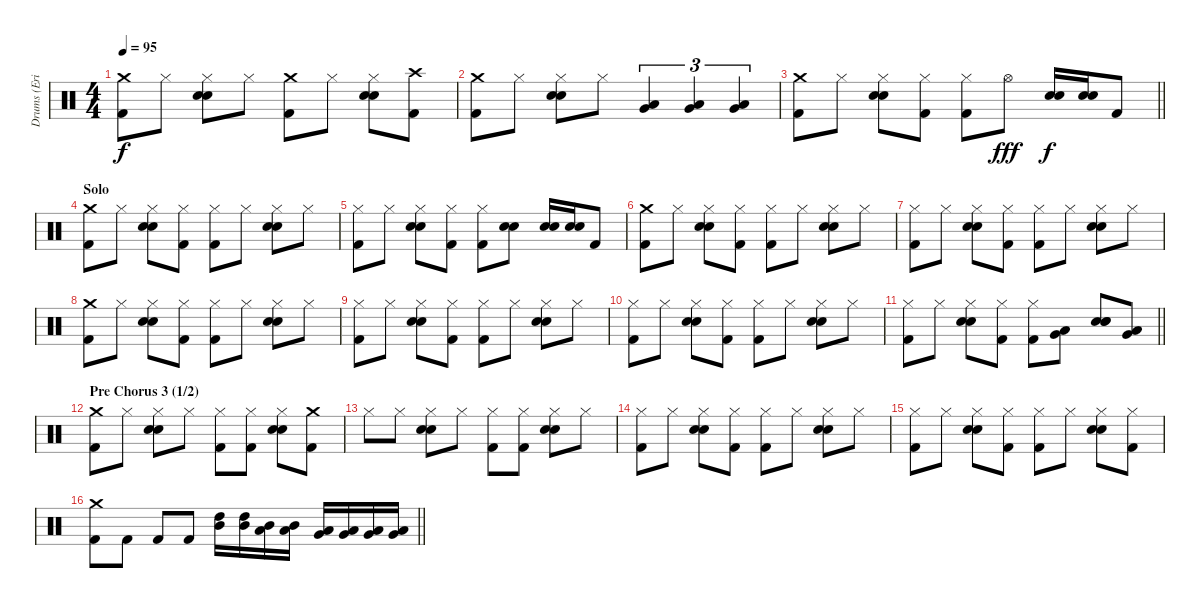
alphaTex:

\track ("Drums (Eric Carr)" "Drums (Eri") {instrument percussion}
\staff {score}
\articulation defaults
\ts (4 4)
\tempo 95
\clef neutral
\ks c
("Crash medium (hit)" "Kick (hit) 2").8{dy f} "Hi-Hat (closed)".8 ("Hi-Hat (closed)" "Electric Snare (hit)" "Snare (hit) 2").8 "Hi-Hat (closed)".8 ("Crash medium (hit)" "Kick (hit) 2").8 "Hi-Hat (closed)".8 ("Hi-Hat (closed)" "Electric Snare (hit)" "Snare (hit) 2").8 ("Kick (hit) 2" "Crash high (hit)").8 |
("Crash medium (hit)" "Kick (hit) 2").8 "Hi-Hat (closed)".8 ("Hi-Hat (closed)" "Electric Snare (hit)" "Snare (hit) 2").8 "Hi-Hat (closed)".8 ("Very Low Tom (hit)" "Low Floor Tom (hit)").4{tu (3 2)} ("Very Low Tom (hit)" "Low Floor Tom (hit)").4{tu (3 2)} ("Very Low Tom (hit)" "Low Floor Tom (hit)").4{tu (3 2)} |
\barLineRight lightlight
("Crash medium (hit)" "Kick (hit) 2").8 "Hi-Hat (closed)".8 ("Hi-Hat (closed)" "Electric Snare (hit)" "Snare (hit) 2").8 ("Hi-Hat (closed)" "Kick (hit) 2").8 ("Hi-Hat (closed)" "Kick (hit) 2").8 "Hi-Hat (open)".8{dy fff} ("Electric Snare (hit)" "Snare (hit) 2").16{dy f} ("Electric Snare (hit)" "Snare (hit) 2").16 "Kick (hit) 2".8 |
\section ("" "Solo")
("Crash medium (hit)" "Kick (hit) 2").8 "Hi-Hat (closed)".8 ("Hi-Hat (closed)" "Electric Snare (hit)" "Snare (hit) 2").8 ("Hi-Hat (closed)" "Kick (hit) 2").8 ("Hi-Hat (closed)" "Kick (hit) 2").8 "Hi-Hat (closed)".8 ("Hi-Hat (closed)" "Electric Snare (hit)" "Snare (hit) 2").8 "Hi-Hat (closed)".8 |
("Hi-Hat (closed)" "Kick (hit) 2").8 "Hi-Hat (closed)".8 ("Hi-Hat (closed)" "Electric Snare (hit)" "Snare (hit) 2").8 ("Hi-Hat (closed)" "Kick (hit) 2").8 ("Hi-Hat (closed)" "Kick (hit) 2").8 ("Snare (hit) 2" "Electric Snare (hit)").8 ("Electric Snare (hit)" "Snare (hit) 2").16 ("Electric Snare (hit)" "Snare (hit) 2").16 "Kick (hit) 2".8 |
("Crash medium (hit)" "Kick (hit) 2").8 "Hi-Hat (closed)".8 ("Hi-Hat (closed)" "Electric Snare (hit)" "Snare (hit) 2").8 ("Hi-Hat (closed)" "Kick (hit) 2").8 ("Hi-Hat (closed)" "Kick (hit) 2").8 "Hi-Hat (closed)".8 ("Hi-Hat (closed)" "Electric Snare (hit)" "Snare (hit) 2").8 "Hi-Hat (closed)".8 |
("Hi-Hat (closed)" "Kick (hit) 2").8 "Hi-Hat (closed)".8 ("Hi-Hat (closed)" "Electric Snare (hit)" "Snare (hit) 2").8 ("Hi-Hat (closed)" "Kick (hit) 2").8 ("Hi-Hat (closed)" "Kick (hit) 2").8 "Hi-Hat (closed)".8 ("Hi-Hat (closed)" "Electric Snare (hit)" "Snare (hit) 2").8 "Hi-Hat (closed)".8 |
("Crash medium (hit)" "Kick (hit) 2").8 "Hi-Hat (closed)".8 ("Hi-Hat (closed)" "Electric Snare (hit)" "Snare (hit) 2").8 ("Hi-Hat (closed)" "Kick (hit) 2").8 ("Hi-Hat (closed)" "Kick (hit) 2").8 "Hi-Hat (closed)".8 ("Hi-Hat (closed)" "Electric Snare (hit)" "Snare (hit) 2").8 "Hi-Hat (closed)".8 |
("Hi-Hat (closed)" "Kick (hit) 2").8 "Hi-Hat (closed)".8 ("Hi-Hat (closed)" "Electric Snare (hit)" "Snare (hit) 2").8 ("Hi-Hat (closed)" "Kick (hit) 2").8 ("Hi-Hat (closed)" "Kick (hit) 2").8 "Hi-Hat (closed)".8 ("Hi-Hat (closed)" "Electric Snare (hit)" "Snare (hit) 2").8 "Hi-Hat (closed)".8 |
("Hi-Hat (closed)" "Kick (hit) 2").8 "Hi-Hat (closed)".8 ("Hi-Hat (closed)" "Electric Snare (hit)" "Snare (hit) 2").8 ("Hi-Hat (closed)" "Kick (hit) 2").8 ("Hi-Hat (closed)" "Kick (hit) 2").8 "Hi-Hat (closed)".8 ("Hi-Hat (closed)" "Electric Snare (hit)" "Snare (hit) 2").8 "Hi-Hat (closed)".8 |
\barLineRight lightlight
("Hi-Hat (closed)" "Kick (hit) 2").8 "Hi-Hat (closed)".8 ("Hi-Hat (closed)" "Electric Snare (hit)" "Snare (hit) 2").8 ("Hi-Hat (closed)" "Kick (hit) 2").8 ("Hi-Hat (closed)" "Kick (hit) 2").8 ("Very Low Tom (hit)" "Low Tom (hit)").8 ("Snare (hit) 2" "Electric Snare (hit)" "Snare (hit) 2").8 ("Very Low Tom (hit)" "Low Floor Tom (hit)").8 |
\section ("" "Pre Chorus 3 (1/2)")
("Crash medium (hit)" "Kick (hit) 2").8 "Hi-Hat (closed)".8 ("Hi-Hat (closed)" "Electric Snare (hit)" "Snare (hit) 2").8 "Hi-Hat (closed)".8 ("Hi-Hat (closed)" "Kick (hit) 2").8 ("Kick (hit) 2" "Hi-Hat (closed)").8 ("Hi-Hat (closed)" "Electric Snare (hit)" "Snare (hit) 2").8 ("Kick (hit) 2" "Crash medium (hit)").8 |
"Hi-Hat (closed)".8 "Hi-Hat (closed)".8 ("Hi-Hat (closed)" "Electric Snare (hit)" "Snare (hit) 2").8 "Hi-Hat (closed)".8 ("Hi-Hat (closed)" "Kick (hit) 2").8 ("Kick (hit) 2" "Hi-Hat (closed)").8 ("Hi-Hat (closed)" "Electric Snare (hit)" "Snare (hit) 2").8 "Hi-Hat (closed)".8 |
("Hi-Hat (closed)" "Kick (hit) 2").8 "Hi-Hat (closed)".8 ("Hi-Hat (closed)" "Electric Snare (hit)" "Snare (hit) 2").8 ("Hi-Hat (closed)" "Kick (hit) 2").8 ("Hi-Hat (closed)" "Kick (hit) 2").8 "Hi-Hat (closed)".8 ("Hi-Hat (closed)" "Electric Snare (hit)" "Snare (hit) 2").8 "Hi-Hat (closed)".8 |
("Hi-Hat (closed)" "Kick (hit) 2").8 "Hi-Hat (closed)".8 ("Hi-Hat (closed)" "Electric Snare (hit)" "Snare (hit) 2").8 ("Hi-Hat (closed)" "Kick (hit) 2").8 ("Hi-Hat (closed)" "Kick (hit) 2").8 "Hi-Hat (closed)".8 ("Hi-Hat (closed)" "Electric Snare (hit)" "Snare (hit) 2").8 ("Kick (hit) 2" "Hi-Hat (closed)").8 |
\barLineRight lightlight
("Crash medium (hit)" "Kick (hit) 2").8 "Kick (hit) 2".8 "Kick (hit) 2".8 "Kick (hit) 2".8 ("Mid Tom (hit)" "High Tom (hit)").16 ("Mid Tom (hit)" "High Tom (hit)").16 ("Low Tom (hit)" "Mid Tom (hit)").16 ("Low Tom (hit)" "Mid Tom (hit)").16 ("Low Tom (hit)" "Very Low Tom (hit)").16 ("Low Tom (hit)" "Very Low Tom (hit)").16 ("Very Low Tom (hit)" "Low Floor Tom (hit)").16 ("Very Low Tom (hit)" "Low Floor Tom (hit)").16
